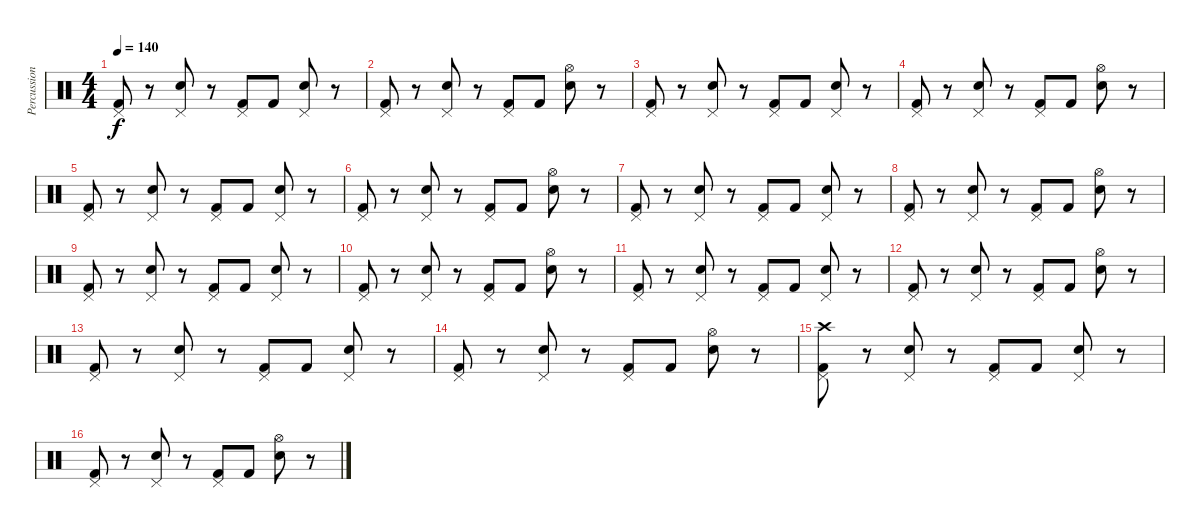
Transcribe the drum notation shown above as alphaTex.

\track ("Percussion" "Percussion") {instrument percussion}
\staff {score}
\articulation defaults
\ts (4 4)
\tempo 140
\clef neutral
\ks c
("Pedal Hi-Hat (hit)" "Kick (hit) 2").8{dy f} r.8 ("Pedal Hi-Hat (hit)" "Electric Snare (hit)").8 r.8 ("Pedal Hi-Hat (hit)" "Kick (hit) 2").8 "Kick (hit) 2".8 ("Pedal Hi-Hat (hit)" "Electric Snare (hit)").8 r.8 |
("Pedal Hi-Hat (hit)" "Kick (hit) 2").8 r.8 ("Pedal Hi-Hat (hit)" "Electric Snare (hit)").8 r.8 ("Pedal Hi-Hat (hit)" "Kick (hit) 2").8 "Kick (hit) 2".8 ("Hi-Hat (open)" "Electric Snare (hit)").8 r.8 |
("Pedal Hi-Hat (hit)" "Kick (hit) 2").8 r.8 ("Pedal Hi-Hat (hit)" "Electric Snare (hit)").8 r.8 ("Pedal Hi-Hat (hit)" "Kick (hit) 2").8 "Kick (hit) 2".8 ("Pedal Hi-Hat (hit)" "Electric Snare (hit)").8 r.8 |
("Pedal Hi-Hat (hit)" "Kick (hit) 2").8 r.8 ("Pedal Hi-Hat (hit)" "Electric Snare (hit)").8 r.8 ("Pedal Hi-Hat (hit)" "Kick (hit) 2").8 "Kick (hit) 2".8 ("Hi-Hat (open)" "Electric Snare (hit)").8 r.8 |
("Pedal Hi-Hat (hit)" "Kick (hit) 2").8 r.8 ("Pedal Hi-Hat (hit)" "Electric Snare (hit)").8 r.8 ("Pedal Hi-Hat (hit)" "Kick (hit) 2").8 "Kick (hit) 2".8 ("Pedal Hi-Hat (hit)" "Electric Snare (hit)").8 r.8 |
("Pedal Hi-Hat (hit)" "Kick (hit) 2").8 r.8 ("Pedal Hi-Hat (hit)" "Electric Snare (hit)").8 r.8 ("Pedal Hi-Hat (hit)" "Kick (hit) 2").8 "Kick (hit) 2".8 ("Hi-Hat (open)" "Electric Snare (hit)").8 r.8 |
("Pedal Hi-Hat (hit)" "Kick (hit) 2").8 r.8 ("Pedal Hi-Hat (hit)" "Electric Snare (hit)").8 r.8 ("Pedal Hi-Hat (hit)" "Kick (hit) 2").8 "Kick (hit) 2".8 ("Pedal Hi-Hat (hit)" "Electric Snare (hit)").8 r.8 |
("Pedal Hi-Hat (hit)" "Kick (hit) 2").8 r.8 ("Pedal Hi-Hat (hit)" "Electric Snare (hit)").8 r.8 ("Pedal Hi-Hat (hit)" "Kick (hit) 2").8 "Kick (hit) 2".8 ("Hi-Hat (open)" "Electric Snare (hit)").8 r.8 |
("Pedal Hi-Hat (hit)" "Kick (hit) 2").8 r.8 ("Pedal Hi-Hat (hit)" "Electric Snare (hit)").8 r.8 ("Pedal Hi-Hat (hit)" "Kick (hit) 2").8 "Kick (hit) 2".8 ("Pedal Hi-Hat (hit)" "Electric Snare (hit)").8 r.8 |
("Pedal Hi-Hat (hit)" "Kick (hit) 2").8 r.8 ("Pedal Hi-Hat (hit)" "Electric Snare (hit)").8 r.8 ("Pedal Hi-Hat (hit)" "Kick (hit) 2").8 "Kick (hit) 2".8 ("Hi-Hat (open)" "Electric Snare (hit)").8 r.8 |
("Pedal Hi-Hat (hit)" "Kick (hit) 2").8 r.8 ("Pedal Hi-Hat (hit)" "Electric Snare (hit)").8 r.8 ("Pedal Hi-Hat (hit)" "Kick (hit) 2").8 "Kick (hit) 2".8 ("Pedal Hi-Hat (hit)" "Electric Snare (hit)").8 r.8 |
("Pedal Hi-Hat (hit)" "Kick (hit) 2").8 r.8 ("Pedal Hi-Hat (hit)" "Electric Snare (hit)").8 r.8 ("Pedal Hi-Hat (hit)" "Kick (hit) 2").8 "Kick (hit) 2".8 ("Hi-Hat (open)" "Electric Snare (hit)").8 r.8 |
("Pedal Hi-Hat (hit)" "Kick (hit) 2").8 r.8 ("Pedal Hi-Hat (hit)" "Electric Snare (hit)").8 r.8 ("Pedal Hi-Hat (hit)" "Kick (hit) 2").8 "Kick (hit) 2".8 ("Pedal Hi-Hat (hit)" "Electric Snare (hit)").8 r.8 |
("Pedal Hi-Hat (hit)" "Kick (hit) 2").8 r.8 ("Pedal Hi-Hat (hit)" "Electric Snare (hit)").8 r.8 ("Pedal Hi-Hat (hit)" "Kick (hit) 2").8 "Kick (hit) 2".8 ("Hi-Hat (open)" "Electric Snare (hit)").8 r.8 |
("Crash high (hit)" "Pedal Hi-Hat (hit)" "Kick (hit) 2").8 r.8 ("Pedal Hi-Hat (hit)" "Electric Snare (hit)").8 r.8 ("Pedal Hi-Hat (hit)" "Kick (hit) 2").8 "Kick (hit) 2".8 ("Pedal Hi-Hat (hit)" "Electric Snare (hit)").8 r.8 |
("Pedal Hi-Hat (hit)" "Kick (hit) 2").8 r.8 ("Pedal Hi-Hat (hit)" "Electric Snare (hit)").8 r.8 ("Pedal Hi-Hat (hit)" "Kick (hit) 2").8 "Kick (hit) 2".8 ("Hi-Hat (open)" "Electric Snare (hit)").8 r.8
